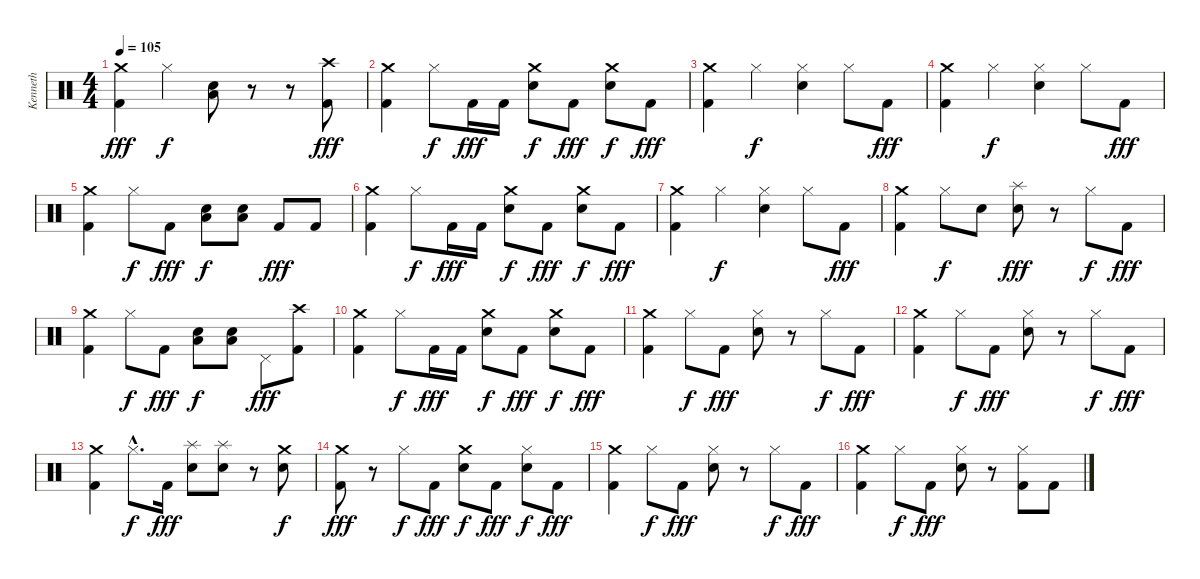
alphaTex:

\track ("Kenneth" "Kenneth") {instrument percussion}
\staff {score}
\articulation defaults
\ts (4 4)
\tempo 105
\clef neutral
\ks c
("Crash medium (hit)" "Kick (hit) 2").4{dy fff} "Hi-Hat (closed)".4{dy f} ("Low Tom (hit)" "Electric Snare (hit)").8 r.8 r.8 ("Crash high (hit)" "Kick (hit) 2").8{dy fff} |
("Crash medium (hit)" "Kick (hit) 2").4 "Hi-Hat (closed)".8{dy f} "Kick (hit) 2".16{dy fff} "Kick (hit) 2".16 ("Crash medium (hit)" "Electric Snare (hit)").8{dy f} "Kick (hit) 2".8{dy fff} ("Crash medium (hit)" "Electric Snare (hit)").8{dy f} "Kick (hit) 2".8{dy fff} |
("Crash medium (hit)" "Kick (hit) 2").4 "Hi-Hat (closed)".4{dy f} ("Hi-Hat (closed)" "Electric Snare (hit)").4 "Hi-Hat (closed)".8 "Kick (hit) 2".8{dy fff} |
("Crash medium (hit)" "Kick (hit) 2").4 "Hi-Hat (closed)".4{dy f} ("Hi-Hat (closed)" "Electric Snare (hit)").4 "Hi-Hat (closed)".8 "Kick (hit) 2".8{dy fff} |
("Crash medium (hit)" "Kick (hit) 2").4 "Hi-Hat (closed)".8{dy f} "Kick (hit) 2".8{dy fff} ("Low Tom (hit)" "Electric Snare (hit)").8{dy f} ("Low Tom (hit)" "Electric Snare (hit)").8 "Kick (hit) 2".8{dy fff} "Kick (hit) 2".8 |
("Crash medium (hit)" "Kick (hit) 2").4 "Hi-Hat (closed)".8{dy f} "Kick (hit) 2".16{dy fff} "Kick (hit) 2".16 ("Crash medium (hit)" "Electric Snare (hit)").8{dy f} "Kick (hit) 2".8{dy fff} ("Crash medium (hit)" "Electric Snare (hit)").8{dy f} "Kick (hit) 2".8{dy fff} |
("Crash medium (hit)" "Kick (hit) 2").4 "Hi-Hat (closed)".4{dy f} ("Hi-Hat (closed)" "Electric Snare (hit)").4 "Hi-Hat (closed)".8 "Kick (hit) 2".8{dy fff} |
("Crash medium (hit)" "Kick (hit) 2").4 "Hi-Hat (closed)".8{dy f} "Electric Snare (hit)".8 ("Splash (hit)" "Electric Snare (hit)").8{dy fff} r.8 "Hi-Hat (closed)".8{dy f} "Kick (hit) 2".8{dy fff} |
("Crash medium (hit)" "Kick (hit) 2").4 "Hi-Hat (closed)".8{dy f} "Kick (hit) 2".8{dy fff} ("Low Tom (hit)" "Electric Snare (hit)").8{dy f} ("Low Tom (hit)" "Electric Snare (hit)").8 "Pedal Hi-Hat (hit)".8{dy fff} ("Crash high (hit)" "Kick (hit) 2").8 |
("Crash medium (hit)" "Kick (hit) 2").4 "Hi-Hat (closed)".8{dy f} "Kick (hit) 2".16{dy fff} "Kick (hit) 2".16 ("Crash medium (hit)" "Electric Snare (hit)").8{dy f} "Kick (hit) 2".8{dy fff} ("Crash medium (hit)" "Electric Snare (hit)").8{dy f} "Kick (hit) 2".8{dy fff} |
("Crash medium (hit)" "Kick (hit) 2").4 "Hi-Hat (closed)".8{dy f} "Kick (hit) 2".8{dy fff} ("Hi-Hat (closed)" "Electric Snare (hit)").8 r.8 "Hi-Hat (closed)".8{dy f} "Kick (hit) 2".8{dy fff} |
("Crash medium (hit)" "Kick (hit) 2").4 "Hi-Hat (closed)".8{dy f} "Kick (hit) 2".8{dy fff} ("Hi-Hat (closed)" "Electric Snare (hit)").8 r.8 "Hi-Hat (closed)".8{dy f} "Kick (hit) 2".8{dy fff} |
("Crash medium (hit)" "Kick (hit) 2").4 "Hi-Hat (closed)"{hac}.8{d dy f} "Kick (hit) 2".16{dy fff} ("Splash (hit)" "Electric Snare (hit)").8 ("Splash (hit)" "Electric Snare (hit)").8 r.8 ("Crash medium (hit)" "Electric Snare (hit)").8{dy f} |
("Crash medium (hit)" "Kick (hit) 2").8{dy fff} r.8 "Hi-Hat (closed)".8{dy f} "Kick (hit) 2".8{dy fff} ("Crash medium (hit)" "Electric Snare (hit)").8{dy f} "Kick (hit) 2".8{dy fff} ("Hi-Hat (closed)" "Electric Snare (hit)").8{dy f} "Kick (hit) 2".8{dy fff} |
("Crash medium (hit)" "Kick (hit) 2").4 "Hi-Hat (closed)".8{dy f} "Kick (hit) 2".8{dy fff} ("Hi-Hat (closed)" "Electric Snare (hit)").8 r.8 "Hi-Hat (closed)".8{dy f} "Kick (hit) 2".8{dy fff} |
("Crash medium (hit)" "Kick (hit) 2").4 "Hi-Hat (closed)".8{dy f} "Kick (hit) 2".8{dy fff} ("Hi-Hat (closed)" "Electric Snare (hit)").8 r.8 ("Hi-Hat (closed)" "Kick (hit) 2").8 "Kick (hit) 2".8
